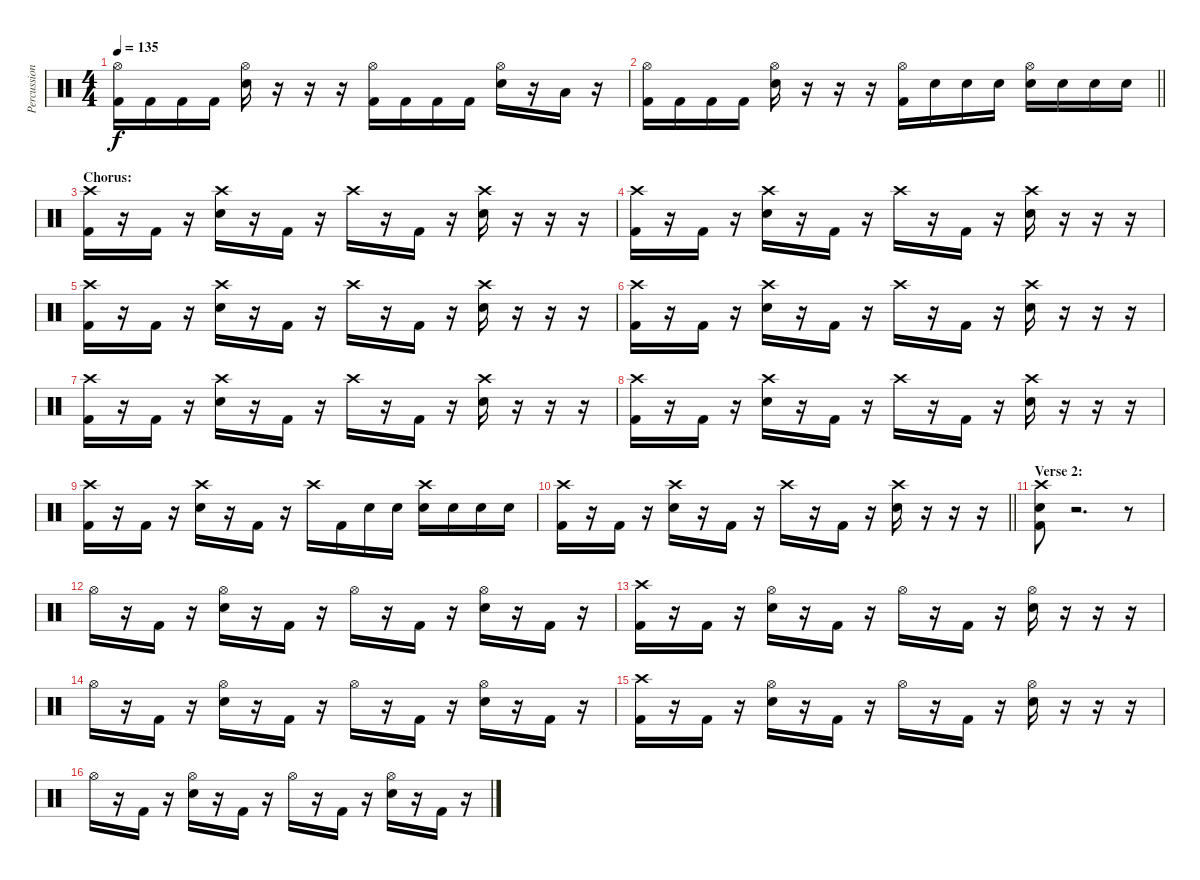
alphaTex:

\track ("Percussion" "Percussion") {instrument percussion}
\staff {score}
\articulation defaults
\ts (4 4)
\tempo 135
\clef neutral
\ks c
("Hi-Hat (open)" "Kick (hit) 2").16{dy f} "Kick (hit) 2".16 "Kick (hit) 2".16 "Kick (hit) 2".16 ("Hi-Hat (open)" "Electric Snare (hit)").16 r.16 r.16 r.16 ("Hi-Hat (open)" "Kick (hit) 2").16 "Kick (hit) 2".16 "Kick (hit) 2".16 "Kick (hit) 2".16 ("Hi-Hat (open)" "Electric Snare (hit)").16 r.16 "Low Floor Tom (hit)".16 r.16 |
\barLineRight lightlight
("Hi-Hat (open)" "Kick (hit) 2").16 "Kick (hit) 2".16 "Kick (hit) 2".16 "Kick (hit) 2".16 ("Hi-Hat (open)" "Electric Snare (hit)").16 r.16 r.16 r.16 ("Hi-Hat (open)" "Kick (hit) 2").16 "Electric Snare (hit)".16 "Electric Snare (hit)".16 "Electric Snare (hit)".16 ("Hi-Hat (open)" "Electric Snare (hit)").16 "Electric Snare (hit)".16 "Electric Snare (hit)".16 "Electric Snare (hit)".16 |
\section ("" "Chorus:")
("Crash high (hit)" "Kick (hit) 2").16 r.16 "Kick (hit) 2".16 r.16 ("Crash high (hit)" "Electric Snare (hit)").16 r.16 "Kick (hit) 2".16 r.16 "Crash high (hit)".16 r.16 "Kick (hit) 2".16 r.16 ("Crash high (hit)" "Electric Snare (hit)").16 r.16 r.16 r.16 |
("Crash high (hit)" "Kick (hit) 2").16 r.16 "Kick (hit) 2".16 r.16 ("Crash high (hit)" "Electric Snare (hit)").16 r.16 "Kick (hit) 2".16 r.16 "Crash high (hit)".16 r.16 "Kick (hit) 2".16 r.16 ("Crash high (hit)" "Electric Snare (hit)").16 r.16 r.16 r.16 |
("Crash high (hit)" "Kick (hit) 2").16 r.16 "Kick (hit) 2".16 r.16 ("Crash high (hit)" "Electric Snare (hit)").16 r.16 "Kick (hit) 2".16 r.16 "Crash high (hit)".16 r.16 "Kick (hit) 2".16 r.16 ("Crash high (hit)" "Electric Snare (hit)").16 r.16 r.16 r.16 |
("Crash high (hit)" "Kick (hit) 2").16 r.16 "Kick (hit) 2".16 r.16 ("Crash high (hit)" "Electric Snare (hit)").16 r.16 "Kick (hit) 2".16 r.16 "Crash high (hit)".16 r.16 "Kick (hit) 2".16 r.16 ("Crash high (hit)" "Electric Snare (hit)").16 r.16 r.16 r.16 |
("Crash high (hit)" "Kick (hit) 2").16 r.16 "Kick (hit) 2".16 r.16 ("Crash high (hit)" "Electric Snare (hit)").16 r.16 "Kick (hit) 2".16 r.16 "Crash high (hit)".16 r.16 "Kick (hit) 2".16 r.16 ("Crash high (hit)" "Electric Snare (hit)").16 r.16 r.16 r.16 |
("Crash high (hit)" "Kick (hit) 2").16 r.16 "Kick (hit) 2".16 r.16 ("Crash high (hit)" "Electric Snare (hit)").16 r.16 "Kick (hit) 2".16 r.16 "Crash high (hit)".16 r.16 "Kick (hit) 2".16 r.16 ("Crash high (hit)" "Electric Snare (hit)").16 r.16 r.16 r.16 |
("Crash high (hit)" "Kick (hit) 2").16 r.16 "Kick (hit) 2".16 r.16 ("Crash high (hit)" "Electric Snare (hit)").16 r.16 "Kick (hit) 2".16 r.16 "Crash high (hit)".16 "Kick (hit) 2".16 "Electric Snare (hit)".16 "Electric Snare (hit)".16 ("Crash high (hit)" "Electric Snare (hit)").16 "Electric Snare (hit)".16 "Electric Snare (hit)".16 "Electric Snare (hit)".16 |
\barLineRight lightlight
("Crash high (hit)" "Kick (hit) 2").16 r.16 "Kick (hit) 2".16 r.16 ("Crash high (hit)" "Electric Snare (hit)").16 r.16 "Kick (hit) 2".16 r.16 "Crash high (hit)".16 r.16 "Kick (hit) 2".16 r.16 ("Crash high (hit)" "Electric Snare (hit)").16 r.16 r.16 r.16 |
\section ("" "Verse 2:")
("Crash high (hit)" "Electric Snare (hit)" "Kick (hit) 2").8 r.2{d} r.8 |
"Hi-Hat (open)".16 r.16 "Kick (hit) 2".16 r.16 ("Hi-Hat (open)" "Electric Snare (hit)").16 r.16 "Kick (hit) 2".16 r.16 "Hi-Hat (open)".16 r.16 "Kick (hit) 2".16 r.16 ("Hi-Hat (open)" "Electric Snare (hit)").16 r.16 "Kick (hit) 2".16 r.16 |
("Crash high (hit)" "Kick (hit) 2").16 r.16 "Kick (hit) 2".16 r.16 ("Hi-Hat (open)" "Electric Snare (hit)").16 r.16 "Kick (hit) 2".16 r.16 "Hi-Hat (open)".16 r.16 "Kick (hit) 2".16 r.16 ("Hi-Hat (open)" "Electric Snare (hit)").16 r.16 r.16 r.16 |
"Hi-Hat (open)".16 r.16 "Kick (hit) 2".16 r.16 ("Hi-Hat (open)" "Electric Snare (hit)").16 r.16 "Kick (hit) 2".16 r.16 "Hi-Hat (open)".16 r.16 "Kick (hit) 2".16 r.16 ("Hi-Hat (open)" "Electric Snare (hit)").16 r.16 "Kick (hit) 2".16 r.16 |
("Crash high (hit)" "Kick (hit) 2").16 r.16 "Kick (hit) 2".16 r.16 ("Hi-Hat (open)" "Electric Snare (hit)").16 r.16 "Kick (hit) 2".16 r.16 "Hi-Hat (open)".16 r.16 "Kick (hit) 2".16 r.16 ("Hi-Hat (open)" "Electric Snare (hit)").16 r.16 r.16 r.16 |
"Hi-Hat (open)".16 r.16 "Kick (hit) 2".16 r.16 ("Hi-Hat (open)" "Electric Snare (hit)").16 r.16 "Kick (hit) 2".16 r.16 "Hi-Hat (open)".16 r.16 "Kick (hit) 2".16 r.16 ("Hi-Hat (open)" "Electric Snare (hit)").16 r.16 "Kick (hit) 2".16 r.16
